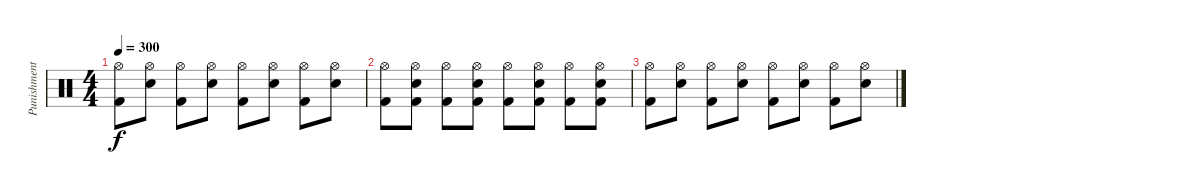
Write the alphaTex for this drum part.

\track ("Punishment" "Punishment") {instrument percussion}
\staff {score}
\articulation defaults
\ts (4 4)
\tempo 300
\clef neutral
\ks c
("Kick (hit) 2" "Hi-Hat (open)").8{dy f} ("Electric Snare (hit)" "Hi-Hat (open)").8 ("Kick (hit) 2" "Hi-Hat (open)").8 ("Electric Snare (hit)" "Hi-Hat (open)").8 ("Kick (hit) 2" "Hi-Hat (open)").8 ("Electric Snare (hit)" "Hi-Hat (open)").8 ("Kick (hit) 2" "Hi-Hat (open)").8 ("Electric Snare (hit)" "Hi-Hat (open)").8 |
("Kick (hit) 2" "Hi-Hat (open)").8 ("Kick (hit) 2" "Electric Snare (hit)" "Hi-Hat (open)").8 ("Kick (hit) 2" "Hi-Hat (open)").8 ("Kick (hit) 2" "Electric Snare (hit)" "Hi-Hat (open)").8 ("Kick (hit) 2" "Hi-Hat (open)").8 ("Kick (hit) 2" "Electric Snare (hit)" "Hi-Hat (open)").8 ("Kick (hit) 2" "Hi-Hat (open)").8 ("Kick (hit) 2" "Electric Snare (hit)" "Hi-Hat (open)").8 |
("Kick (hit) 2" "Hi-Hat (open)").8 ("Electric Snare (hit)" "Hi-Hat (open)").8 ("Kick (hit) 2" "Hi-Hat (open)").8 ("Electric Snare (hit)" "Hi-Hat (open)").8 ("Kick (hit) 2" "Hi-Hat (open)").8 ("Electric Snare (hit)" "Hi-Hat (open)").8 ("Kick (hit) 2" "Hi-Hat (open)").8 ("Electric Snare (hit)" "Hi-Hat (open)").8
